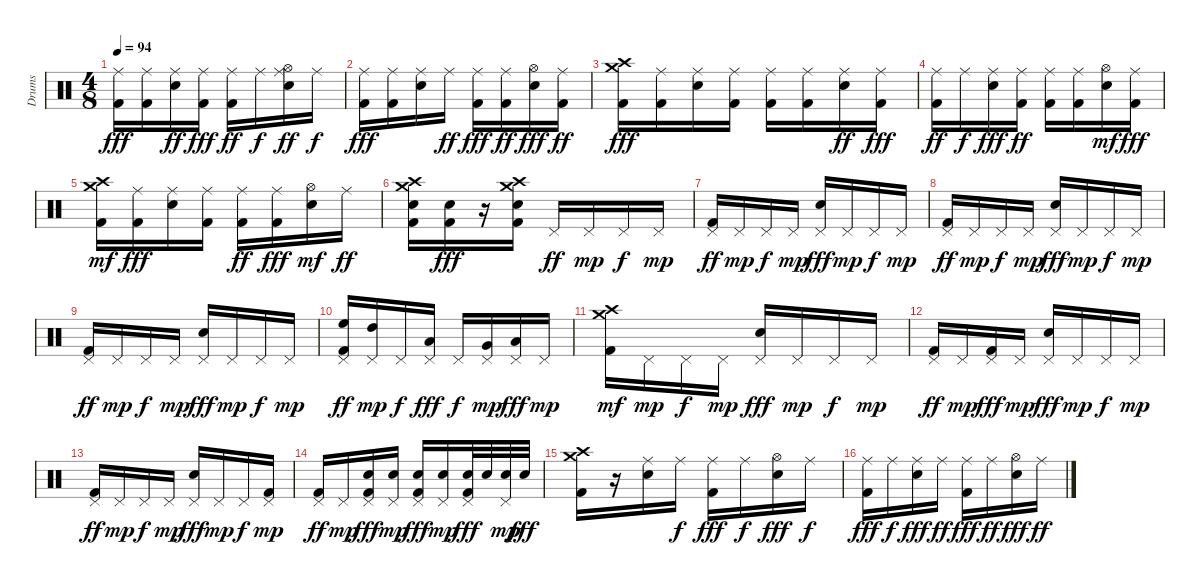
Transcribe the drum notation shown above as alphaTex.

\track ("Drums" "Drums") {instrument percussion}
\staff {score}
\articulation defaults
\ts (4 8)
\tempo 94
\clef neutral
\ks c
("Ride (middle)" "Kick (hit) 2").16{dy fff} ("Ride (middle)" "Kick (hit) 2").16 ("Electric Snare (hit)" "Ride (middle)").16{dy ff} ("Ride (middle)" "Kick (hit) 2").16{dy fff} ("Kick (hit) 2" "Ride (middle)").16{dy ff} "Ride (middle)".16{dy f} ("Electric Snare (hit)" "Hi-Hat (open)" "Ride (middle)").16{dy ff} "Ride (middle)".16{dy f} |
("Ride (middle)" "Kick (hit) 2").16{dy fff} ("Kick (hit) 2" "Ride (middle)").16 ("Ride (middle)" "Electric Snare (hit)").16 "Ride (middle)".16{dy ff} ("Ride (middle)" "Kick (hit) 2").16{dy fff} ("Kick (hit) 2" "Ride (middle)").16{dy ff} ("Hi-Hat (open)" "Electric Snare (hit)").16{dy fff} ("Kick (hit) 2" "Ride (middle)").16{dy ff} |
("Crash medium (hit)" "Kick (hit) 2" "Crash high (hit)").16{dy fff} ("Kick (hit) 2" "Ride (middle)").16 ("Ride (middle)" "Electric Snare (hit)").16 ("Ride (middle)" "Kick (hit) 2").16 ("Ride (middle)" "Kick (hit) 2").16 ("Kick (hit) 2" "Ride (middle)").16 ("Electric Snare (hit)" "Ride (middle)").16{dy ff} ("Kick (hit) 2" "Ride (middle)").16{dy fff} |
("Kick (hit) 2" "Ride (middle)").16{dy ff} "Ride (middle)".16{dy f} ("Ride (middle)" "Electric Snare (hit)").16{dy fff} ("Kick (hit) 2" "Ride (middle)").16{dy ff} ("Kick (hit) 2" "Ride (middle)").16 ("Kick (hit) 2" "Ride (middle)").16 ("Electric Snare (hit)" "Hi-Hat (open)").16{dy mf} ("Ride (middle)" "Kick (hit) 2").16{dy fff} |
("Kick (hit) 2" "Crash high (hit)" "Crash medium (hit)").16{dy mf} ("Ride (middle)" "Kick (hit) 2").16{dy fff} ("Ride (middle)" "Electric Snare (hit)").16 ("Ride (middle)" "Kick (hit) 2").16 ("Kick (hit) 2" "Ride (middle)").16{dy ff} ("Ride (middle)" "Kick (hit) 2").16{dy fff} ("Electric Snare (hit)" "Hi-Hat (open)").16{dy mf} "Ride (middle)".16{dy ff} |
("Crash high (hit)" "Kick (hit) 2" "Electric Snare (hit)" "Crash medium (hit)").16 ("Electric Snare (hit)" "Kick (hit) 2").16{dy fff} r.16 ("Crash medium (hit)" "Crash high (hit)" "Kick (hit) 2" "Electric Snare (hit)").16 "Pedal Hi-Hat (hit)".16{dy ff} "Pedal Hi-Hat (hit)".16{dy mp} "Pedal Hi-Hat (hit)".16{dy f} "Pedal Hi-Hat (hit)".16{dy mp} |
("Kick (hit) 2" "Pedal Hi-Hat (hit)").16{dy ff} "Pedal Hi-Hat (hit)".16{dy mp} "Pedal Hi-Hat (hit)".16{dy f} "Pedal Hi-Hat (hit)".16{dy mp} ("Electric Snare (hit)" "Pedal Hi-Hat (hit)").16{dy fff} "Pedal Hi-Hat (hit)".16{dy mp} "Pedal Hi-Hat (hit)".16{dy f} "Pedal Hi-Hat (hit)".16{dy mp} |
("Kick (hit) 2" "Pedal Hi-Hat (hit)").16{dy ff} "Pedal Hi-Hat (hit)".16{dy mp} "Pedal Hi-Hat (hit)".16{dy f} "Pedal Hi-Hat (hit)".16{dy mp} ("Electric Snare (hit)" "Pedal Hi-Hat (hit)").16{dy fff} "Pedal Hi-Hat (hit)".16{dy mp} "Pedal Hi-Hat (hit)".16{dy f} "Pedal Hi-Hat (hit)".16{dy mp} |
("Kick (hit) 2" "Pedal Hi-Hat (hit)").16{dy ff} "Pedal Hi-Hat (hit)".16{dy mp} "Pedal Hi-Hat (hit)".16{dy f} "Pedal Hi-Hat (hit)".16{dy mp} ("Electric Snare (hit)" "Pedal Hi-Hat (hit)").16{dy fff} "Pedal Hi-Hat (hit)".16{dy mp} "Pedal Hi-Hat (hit)".16{dy f} "Pedal Hi-Hat (hit)".16{dy mp} |
("High Floor Tom (hit)" "Kick (hit) 2" "Pedal Hi-Hat (hit)").16{dy ff} ("High Tom (hit)" "Pedal Hi-Hat (hit)").16{dy mp} "Pedal Hi-Hat (hit)".16{dy f} ("Pedal Hi-Hat (hit)" "Low Tom (hit)").16{dy fff} "Pedal Hi-Hat (hit)".16{dy f} ("Very Low Tom (hit)" "Pedal Hi-Hat (hit)").16{dy mp} ("Low Floor Tom (hit)" "Pedal Hi-Hat (hit)").16{dy fff} "Pedal Hi-Hat (hit)".16{dy mp} |
("Crash medium (hit)" "Kick (hit) 2" "Crash high (hit)").16{dy mf} "Pedal Hi-Hat (hit)".16{dy mp} "Pedal Hi-Hat (hit)".16{dy f} "Pedal Hi-Hat (hit)".16{dy mp} ("Electric Snare (hit)" "Pedal Hi-Hat (hit)").16{dy fff} "Pedal Hi-Hat (hit)".16{dy mp} "Pedal Hi-Hat (hit)".16{dy f} "Pedal Hi-Hat (hit)".16{dy mp} |
("Kick (hit) 2" "Pedal Hi-Hat (hit)").16{dy ff} "Pedal Hi-Hat (hit)".16{dy mp} ("Kick (hit) 2" "Pedal Hi-Hat (hit)").16{dy fff} "Pedal Hi-Hat (hit)".16{dy mp} ("Electric Snare (hit)" "Pedal Hi-Hat (hit)").16{dy fff} "Pedal Hi-Hat (hit)".16{dy mp} "Pedal Hi-Hat (hit)".16{dy f} "Pedal Hi-Hat (hit)".16{dy mp} |
("Kick (hit) 2" "Pedal Hi-Hat (hit)").16{dy ff} "Pedal Hi-Hat (hit)".16{dy mp} "Pedal Hi-Hat (hit)".16{dy f} "Pedal Hi-Hat (hit)".16{dy mp} ("Electric Snare (hit)" "Pedal Hi-Hat (hit)").16{dy fff} "Pedal Hi-Hat (hit)".16{dy mp} "Pedal Hi-Hat (hit)".16{dy f} ("Kick (hit) 2" "Pedal Hi-Hat (hit)").16{dy mp} |
("Kick (hit) 2" "Pedal Hi-Hat (hit)").16{dy ff} "Pedal Hi-Hat (hit)".16{dy mp} ("Kick (hit) 2" "Electric Snare (hit)" "Pedal Hi-Hat (hit)").16{dy fff} ("Electric Snare (hit)" "Pedal Hi-Hat (hit)").16{dy mp} ("Kick (hit) 2" "Electric Snare (hit)" "Pedal Hi-Hat (hit)").16{dy fff} ("Electric Snare (hit)" "Pedal Hi-Hat (hit)").16{dy mp} ("Kick (hit) 2" "Electric Snare (hit)" "Pedal Hi-Hat (hit)").32{dy fff} "Electric Snare (hit)".32 ("Electric Snare (hit)" "Pedal Hi-Hat (hit)").32{dy mp} "Electric Snare (hit)".32{dy fff} |
("Crash medium (hit)" "Crash high (hit)" "Kick (hit) 2").16 r.16 ("Ride (middle)" "Electric Snare (hit)").16 "Ride (middle)".16{dy f} ("Ride (middle)" "Kick (hit) 2").16{dy fff} "Ride (middle)".16{dy f} ("Hi-Hat (open)" "Electric Snare (hit)").16{dy fff} "Ride (middle)".16{dy f} |
("Ride (middle)" "Kick (hit) 2").16{dy fff} "Ride (middle)".16{dy f} ("Ride (middle)" "Electric Snare (hit)").16{dy fff} "Ride (middle)".16{dy ff} ("Ride (middle)" "Kick (hit) 2").16{dy fff} "Ride (middle)".16{dy ff} ("Hi-Hat (open)" "Electric Snare (hit)").16{dy fff} "Ride (middle)".16{dy ff}
